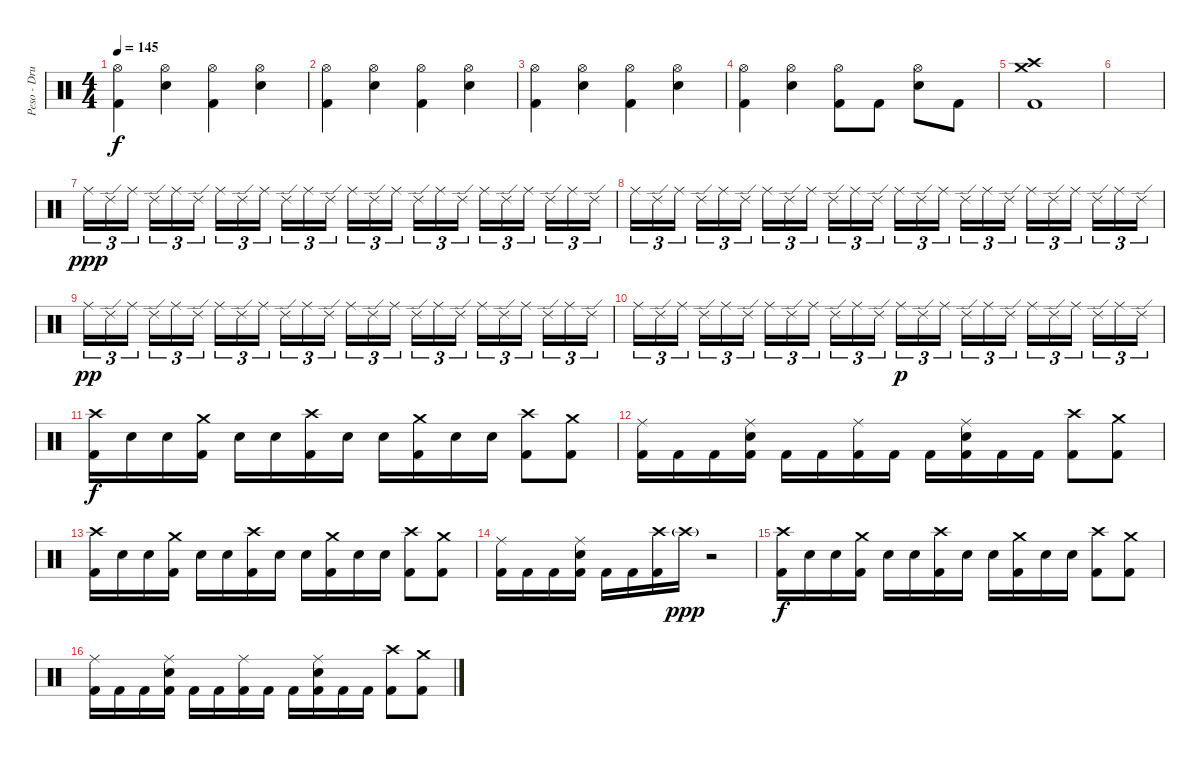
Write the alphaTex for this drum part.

\track ("Peso - Drums" "Peso - Dru") {instrument percussion}
\staff {score}
\articulation defaults
\ts (4 4)
\tempo 145
\clef neutral
\ks c
("Hi-Hat (open)" "Kick (hit) 2").4{dy f} ("Hi-Hat (open)" "Electric Snare (hit)").4 ("Hi-Hat (open)" "Kick (hit) 2").4 ("Hi-Hat (open)" "Electric Snare (hit)").4 |
("Hi-Hat (open)" "Kick (hit) 2").4 ("Hi-Hat (open)" "Electric Snare (hit)").4 ("Hi-Hat (open)" "Kick (hit) 2").4 ("Hi-Hat (open)" "Electric Snare (hit)").4 |
("Hi-Hat (open)" "Kick (hit) 2").4 ("Hi-Hat (open)" "Electric Snare (hit)").4 ("Hi-Hat (open)" "Kick (hit) 2").4 ("Hi-Hat (open)" "Electric Snare (hit)").4 |
("Hi-Hat (open)" "Kick (hit) 2").4 ("Hi-Hat (open)" "Electric Snare (hit)").4 ("Hi-Hat (open)" "Kick (hit) 2").8 "Kick (hit) 2".8 ("Hi-Hat (open)" "Electric Snare (hit)").8 "Kick (hit) 2".8 |
("Crash medium (hit)" "Crash high (hit)" "Kick (hit) 2").1 |
|
"Ride (middle)".16{tu (3 2) dy ppp} "Ride (edge) 2".16{tu (3 2)} "Ride (middle)".16{tu (3 2) beam splitsecondary} "Ride (edge) 2".16{tu (3 2)} "Ride (middle)".16{tu (3 2)} "Ride (edge) 2".16{tu (3 2)} "Ride (middle)".16{tu (3 2)} "Ride (edge) 2".16{tu (3 2)} "Ride (middle)".16{tu (3 2) beam splitsecondary} "Ride (edge) 2".16{tu (3 2)} "Ride (middle)".16{tu (3 2)} "Ride (edge) 2".16{tu (3 2)} "Ride (middle)".16{tu (3 2)} "Ride (edge) 2".16{tu (3 2)} "Ride (middle)".16{tu (3 2) beam splitsecondary} "Ride (edge) 2".16{tu (3 2)} "Ride (middle)".16{tu (3 2)} "Ride (edge) 2".16{tu (3 2)} "Ride (middle)".16{tu (3 2)} "Ride (edge) 2".16{tu (3 2)} "Ride (middle)".16{tu (3 2) beam splitsecondary} "Ride (edge) 2".16{tu (3 2)} "Ride (middle)".16{tu (3 2)} "Ride (edge) 2".16{tu (3 2)} |
"Ride (middle)".16{tu (3 2)} "Ride (edge) 2".16{tu (3 2)} "Ride (middle)".16{tu (3 2) beam splitsecondary} "Ride (edge) 2".16{tu (3 2)} "Ride (middle)".16{tu (3 2)} "Ride (edge) 2".16{tu (3 2)} "Ride (middle)".16{tu (3 2)} "Ride (edge) 2".16{tu (3 2)} "Ride (middle)".16{tu (3 2) beam splitsecondary} "Ride (edge) 2".16{tu (3 2)} "Ride (middle)".16{tu (3 2)} "Ride (edge) 2".16{tu (3 2)} "Ride (middle)".16{tu (3 2)} "Ride (edge) 2".16{tu (3 2)} "Ride (middle)".16{tu (3 2) beam splitsecondary} "Ride (edge) 2".16{tu (3 2)} "Ride (middle)".16{tu (3 2)} "Ride (edge) 2".16{tu (3 2)} "Ride (middle)".16{tu (3 2)} "Ride (edge) 2".16{tu (3 2)} "Ride (middle)".16{tu (3 2) beam splitsecondary} "Ride (edge) 2".16{tu (3 2)} "Ride (middle)".16{tu (3 2)} "Ride (edge) 2".16{tu (3 2)} |
"Ride (middle)".16{tu (3 2) dy pp} "Ride (edge) 2".16{tu (3 2)} "Ride (middle)".16{tu (3 2) beam splitsecondary} "Ride (edge) 2".16{tu (3 2)} "Ride (middle)".16{tu (3 2)} "Ride (edge) 2".16{tu (3 2)} "Ride (middle)".16{tu (3 2)} "Ride (edge) 2".16{tu (3 2)} "Ride (middle)".16{tu (3 2) beam splitsecondary} "Ride (edge) 2".16{tu (3 2)} "Ride (middle)".16{tu (3 2)} "Ride (edge) 2".16{tu (3 2)} "Ride (middle)".16{tu (3 2)} "Ride (edge) 2".16{tu (3 2)} "Ride (middle)".16{tu (3 2) beam splitsecondary} "Ride (edge) 2".16{tu (3 2)} "Ride (middle)".16{tu (3 2)} "Ride (edge) 2".16{tu (3 2)} "Ride (middle)".16{tu (3 2)} "Ride (edge) 2".16{tu (3 2)} "Ride (middle)".16{tu (3 2) beam splitsecondary} "Ride (edge) 2".16{tu (3 2)} "Ride (middle)".16{tu (3 2)} "Ride (edge) 2".16{tu (3 2)} |
"Ride (middle)".16{tu (3 2)} "Ride (edge) 2".16{tu (3 2)} "Ride (middle)".16{tu (3 2) beam splitsecondary} "Ride (edge) 2".16{tu (3 2)} "Ride (middle)".16{tu (3 2)} "Ride (edge) 2".16{tu (3 2)} "Ride (middle)".16{tu (3 2)} "Ride (edge) 2".16{tu (3 2)} "Ride (middle)".16{tu (3 2) beam splitsecondary} "Ride (edge) 2".16{tu (3 2)} "Ride (middle)".16{tu (3 2)} "Ride (edge) 2".16{tu (3 2)} "Ride (middle)".16{tu (3 2) dy p} "Ride (edge) 2".16{tu (3 2)} "Ride (middle)".16{tu (3 2) beam splitsecondary} "Ride (edge) 2".16{tu (3 2)} "Ride (middle)".16{tu (3 2)} "Ride (edge) 2".16{tu (3 2)} "Ride (middle)".16{tu (3 2)} "Ride (edge) 2".16{tu (3 2)} "Ride (middle)".16{tu (3 2) beam splitsecondary} "Ride (edge) 2".16{tu (3 2)} "Ride (middle)".16{tu (3 2)} "Ride (edge) 2".16{tu (3 2)} |
("Crash high (hit)" "Kick (hit) 2").16{dy f} "Electric Snare (hit)".16 "Electric Snare (hit)".16 ("Crash medium (hit)" "Kick (hit) 2").16 "Electric Snare (hit)".16 "Electric Snare (hit)".16 ("Crash high (hit)" "Kick (hit) 2").16 "Electric Snare (hit)".16 "Electric Snare (hit)".16 ("Crash medium (hit)" "Kick (hit) 2").16 "Electric Snare (hit)".16 "Electric Snare (hit)".16 ("Crash high (hit)" "Kick (hit) 2").8 ("Crash medium (hit)" "Kick (hit) 2").8 |
("Ride (middle)" "Kick (hit) 2").16 "Kick (hit) 2".16 "Kick (hit) 2".16 ("Ride (middle)" "Electric Snare (hit)" "Kick (hit) 2").16 "Kick (hit) 2".16 "Kick (hit) 2".16 ("Ride (middle)" "Kick (hit) 2").16 "Kick (hit) 2".16 "Kick (hit) 2".16 ("Ride (middle)" "Electric Snare (hit)" "Kick (hit) 2").16 "Kick (hit) 2".16 "Kick (hit) 2".16 ("Crash high (hit)" "Kick (hit) 2").8 ("Crash medium (hit)" "Kick (hit) 2").8 |
("Crash high (hit)" "Kick (hit) 2").16 "Electric Snare (hit)".16 "Electric Snare (hit)".16 ("Crash medium (hit)" "Kick (hit) 2").16 "Electric Snare (hit)".16 "Electric Snare (hit)".16 ("Crash high (hit)" "Kick (hit) 2").16 "Electric Snare (hit)".16 "Electric Snare (hit)".16 ("Crash medium (hit)" "Kick (hit) 2").16 "Electric Snare (hit)".16 "Electric Snare (hit)".16 ("Crash high (hit)" "Kick (hit) 2").8 ("Crash medium (hit)" "Kick (hit) 2").8 |
("Ride (middle)" "Kick (hit) 2").16 "Kick (hit) 2".16 "Kick (hit) 2".16 ("Ride (middle)" "Electric Snare (hit)" "Kick (hit) 2").16 "Kick (hit) 2".16 "Kick (hit) 2".16 ("Crash high (hit)" "Kick (hit) 2").16 "Crash high (hit)"{g}.16{dy ppp} r.2 |
("Crash high (hit)" "Kick (hit) 2").16{dy f} "Electric Snare (hit)".16 "Electric Snare (hit)".16 ("Crash medium (hit)" "Kick (hit) 2").16 "Electric Snare (hit)".16 "Electric Snare (hit)".16 ("Crash high (hit)" "Kick (hit) 2").16 "Electric Snare (hit)".16 "Electric Snare (hit)".16 ("Crash medium (hit)" "Kick (hit) 2").16 "Electric Snare (hit)".16 "Electric Snare (hit)".16 ("Crash high (hit)" "Kick (hit) 2").8 ("Crash medium (hit)" "Kick (hit) 2").8 |
("Ride (middle)" "Kick (hit) 2").16 "Kick (hit) 2".16 "Kick (hit) 2".16 ("Ride (middle)" "Electric Snare (hit)" "Kick (hit) 2").16 "Kick (hit) 2".16 "Kick (hit) 2".16 ("Ride (middle)" "Kick (hit) 2").16 "Kick (hit) 2".16 "Kick (hit) 2".16 ("Ride (middle)" "Electric Snare (hit)" "Kick (hit) 2").16 "Kick (hit) 2".16 "Kick (hit) 2".16 ("Crash high (hit)" "Kick (hit) 2").8 ("Crash medium (hit)" "Kick (hit) 2").8
